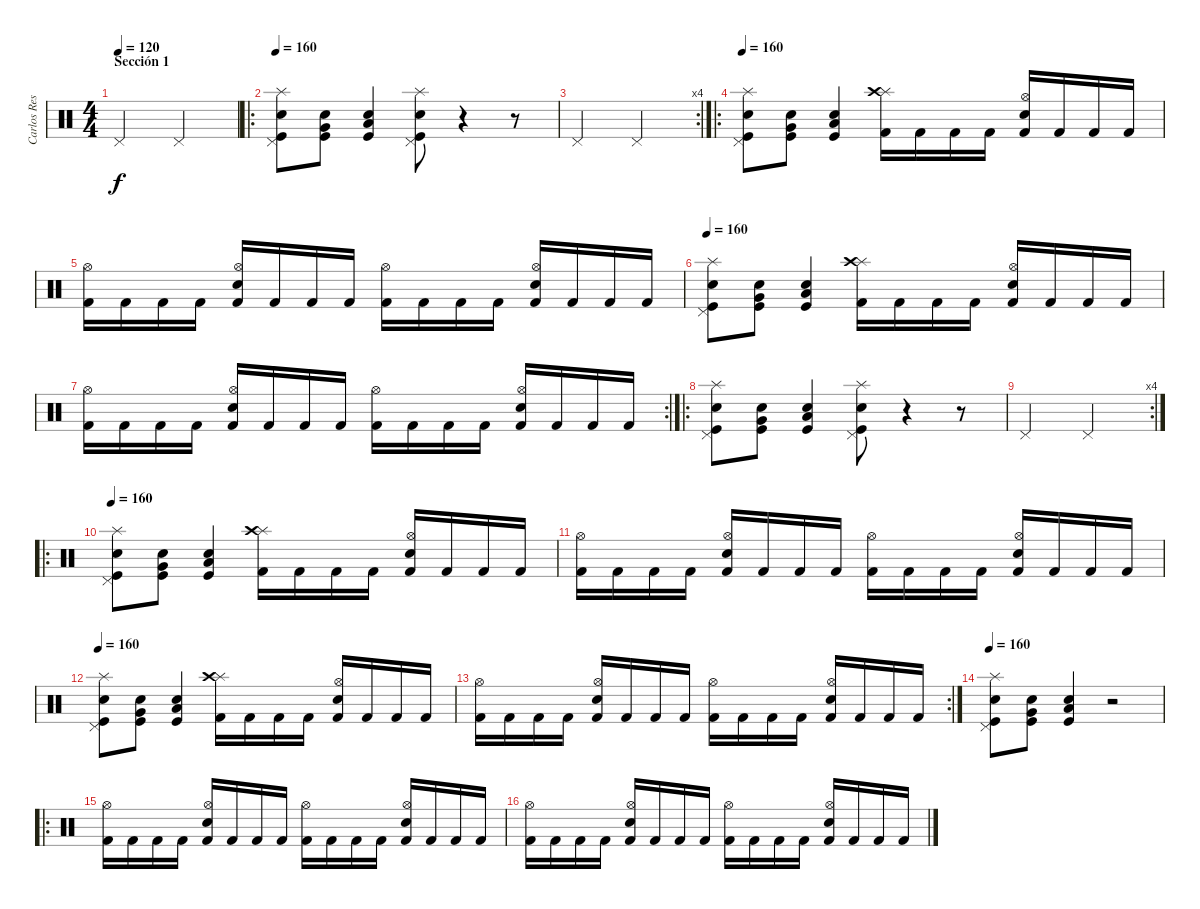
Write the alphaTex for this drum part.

\track ("Carlos Restrepo" "Carlos Res") {instrument percussion}
\staff {score}
\articulation defaults
\ts (4 4)
\section ("" "Sección 1")
\tempo 120
\tempo 160
\tempo 120
\clef neutral
\ks c "Pedal Hi-Hat (hit)".2{dy f} "Pedal Hi-Hat (hit)".2
|
\ro
\tempo 160
("Kick (hit)" "Pedal Hi-Hat (hit)" "Snare (hit) 2" "Splash (hit)").8 ("Kick (hit)" "Snare (hit) 2" "Very Low Tom (hit)").8 ("Kick (hit)" "Snare (hit) 2" "Low Tom (hit)").4 ("Kick (hit)" "Pedal Hi-Hat (hit)" "Snare (hit) 2" "Splash (hit)").8 r.4 r.8 |
\rc 4 "Pedal Hi-Hat (hit)".2 "Pedal Hi-Hat (hit)".2
|
\ro
\tempo 160
("Kick (hit)" "Pedal Hi-Hat (hit)" "Snare (hit) 2" "Splash (hit)").8 ("Kick (hit)" "Snare (hit) 2" "Very Low Tom (hit)").8 ("Kick (hit)" "Snare (hit) 2" "Low Tom (hit)").4 ("Splash (hit)" "Crash high (hit)" "Kick (hit) 2").16 "Kick (hit) 2".16 "Kick (hit) 2".16 "Kick (hit) 2".16 ("Hi-Hat (open)" "Electric Snare (hit)" "Kick (hit) 2").16 "Kick (hit) 2".16 "Kick (hit) 2".16 "Kick (hit) 2".16 |
("Hi-Hat (open)" "Kick (hit) 2").16 "Kick (hit) 2".16 "Kick (hit) 2".16 "Kick (hit) 2".16 ("Hi-Hat (open)" "Electric Snare (hit)" "Kick (hit) 2").16 "Kick (hit) 2".16 "Kick (hit) 2".16 "Kick (hit) 2".16 ("Hi-Hat (open)" "Kick (hit) 2").16 "Kick (hit) 2".16 "Kick (hit) 2".16 "Kick (hit) 2".16 ("Hi-Hat (open)" "Electric Snare (hit)" "Kick (hit) 2").16 "Kick (hit) 2".16 "Kick (hit) 2".16 "Kick (hit) 2".16 |
\tempo 160
("Kick (hit)" "Pedal Hi-Hat (hit)" "Snare (hit) 2" "Splash (hit)").8 ("Kick (hit)" "Snare (hit) 2" "Very Low Tom (hit)").8 ("Kick (hit)" "Snare (hit) 2" "Low Tom (hit)").4 ("Splash (hit)" "Crash high (hit)" "Kick (hit) 2").16 "Kick (hit) 2".16 "Kick (hit) 2".16 "Kick (hit) 2".16 ("Hi-Hat (open)" "Electric Snare (hit)" "Kick (hit) 2").16 "Kick (hit) 2".16 "Kick (hit) 2".16 "Kick (hit) 2".16 |
\rc 2
("Hi-Hat (open)" "Kick (hit) 2").16 "Kick (hit) 2".16 "Kick (hit) 2".16 "Kick (hit) 2".16 ("Hi-Hat (open)" "Electric Snare (hit)" "Kick (hit) 2").16 "Kick (hit) 2".16 "Kick (hit) 2".16 "Kick (hit) 2".16 ("Hi-Hat (open)" "Kick (hit) 2").16 "Kick (hit) 2".16 "Kick (hit) 2".16 "Kick (hit) 2".16 ("Hi-Hat (open)" "Electric Snare (hit)" "Kick (hit) 2").16 "Kick (hit) 2".16 "Kick (hit) 2".16 "Kick (hit) 2".16 |
\ro
("Kick (hit)" "Pedal Hi-Hat (hit)" "Snare (hit) 2" "Splash (hit)").8 ("Kick (hit)" "Snare (hit) 2" "Very Low Tom (hit)").8 ("Kick (hit)" "Snare (hit) 2" "Low Tom (hit)").4 ("Kick (hit)" "Pedal Hi-Hat (hit)" "Snare (hit) 2" "Splash (hit)").8 r.4 r.8 |
\rc 4 "Pedal Hi-Hat (hit)".2 "Pedal Hi-Hat (hit)".2
|
\ro
\tempo 160
("Kick (hit)" "Pedal Hi-Hat (hit)" "Snare (hit) 2" "Splash (hit)").8 ("Kick (hit)" "Snare (hit) 2" "Very Low Tom (hit)").8 ("Kick (hit)" "Snare (hit) 2" "Low Tom (hit)").4 ("Splash (hit)" "Crash high (hit)" "Kick (hit) 2").16 "Kick (hit) 2".16 "Kick (hit) 2".16 "Kick (hit) 2".16 ("Hi-Hat (open)" "Electric Snare (hit)" "Kick (hit) 2").16 "Kick (hit) 2".16 "Kick (hit) 2".16 "Kick (hit) 2".16 |
("Hi-Hat (open)" "Kick (hit) 2").16 "Kick (hit) 2".16 "Kick (hit) 2".16 "Kick (hit) 2".16 ("Hi-Hat (open)" "Electric Snare (hit)" "Kick (hit) 2").16 "Kick (hit) 2".16 "Kick (hit) 2".16 "Kick (hit) 2".16 ("Hi-Hat (open)" "Kick (hit) 2").16 "Kick (hit) 2".16 "Kick (hit) 2".16 "Kick (hit) 2".16 ("Hi-Hat (open)" "Electric Snare (hit)" "Kick (hit) 2").16 "Kick (hit) 2".16 "Kick (hit) 2".16 "Kick (hit) 2".16 |
\tempo 160
("Kick (hit)" "Pedal Hi-Hat (hit)" "Snare (hit) 2" "Splash (hit)").8 ("Kick (hit)" "Snare (hit) 2" "Very Low Tom (hit)").8 ("Kick (hit)" "Snare (hit) 2" "Low Tom (hit)").4 ("Splash (hit)" "Crash high (hit)" "Kick (hit) 2").16 "Kick (hit) 2".16 "Kick (hit) 2".16 "Kick (hit) 2".16 ("Hi-Hat (open)" "Electric Snare (hit)" "Kick (hit) 2").16 "Kick (hit) 2".16 "Kick (hit) 2".16 "Kick (hit) 2".16 |
\rc 2
("Hi-Hat (open)" "Kick (hit) 2").16 "Kick (hit) 2".16 "Kick (hit) 2".16 "Kick (hit) 2".16 ("Hi-Hat (open)" "Electric Snare (hit)" "Kick (hit) 2").16 "Kick (hit) 2".16 "Kick (hit) 2".16 "Kick (hit) 2".16 ("Hi-Hat (open)" "Kick (hit) 2").16 "Kick (hit) 2".16 "Kick (hit) 2".16 "Kick (hit) 2".16 ("Hi-Hat (open)" "Electric Snare (hit)" "Kick (hit) 2").16 "Kick (hit) 2".16 "Kick (hit) 2".16 "Kick (hit) 2".16 |
\tempo 160
("Kick (hit)" "Pedal Hi-Hat (hit)" "Snare (hit) 2" "Splash (hit)").8 ("Kick (hit)" "Snare (hit) 2" "Very Low Tom (hit)").8 ("Kick (hit)" "Snare (hit) 2" "Low Tom (hit)").4 r.2 |
\ro
("Hi-Hat (open)" "Kick (hit) 2").16 "Kick (hit) 2".16 "Kick (hit) 2".16 "Kick (hit) 2".16 ("Hi-Hat (open)" "Electric Snare (hit)" "Kick (hit) 2").16 "Kick (hit) 2".16 "Kick (hit) 2".16 "Kick (hit) 2".16 ("Hi-Hat (open)" "Kick (hit) 2").16 "Kick (hit) 2".16 "Kick (hit) 2".16 "Kick (hit) 2".16 ("Hi-Hat (open)" "Electric Snare (hit)" "Kick (hit) 2").16 "Kick (hit) 2".16 "Kick (hit) 2".16 "Kick (hit) 2".16 |
("Hi-Hat (open)" "Kick (hit) 2").16 "Kick (hit) 2".16 "Kick (hit) 2".16 "Kick (hit) 2".16 ("Hi-Hat (open)" "Electric Snare (hit)" "Kick (hit) 2").16 "Kick (hit) 2".16 "Kick (hit) 2".16 "Kick (hit) 2".16 ("Hi-Hat (open)" "Kick (hit) 2").16 "Kick (hit) 2".16 "Kick (hit) 2".16 "Kick (hit) 2".16 ("Hi-Hat (open)" "Electric Snare (hit)" "Kick (hit) 2").16 "Kick (hit) 2".16 "Kick (hit) 2".16 "Kick (hit) 2".16
